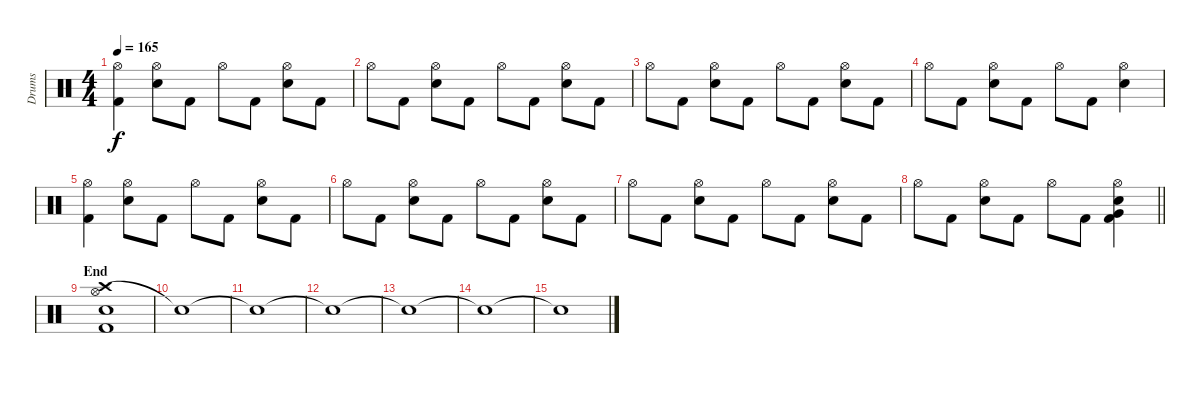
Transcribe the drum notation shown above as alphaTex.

\track ("Drums" "Drums") {instrument percussion}
\staff {score}
\articulation defaults
\ts (4 4)
\tempo 165
\clef neutral
\ks c
("Hi-Hat (open)" "Kick (hit) 2").4{dy f} ("Hi-Hat (open)" "Electric Snare (hit)").8 "Kick (hit) 2".8 "Hi-Hat (open)".8 "Kick (hit) 2".8 ("Hi-Hat (open)" "Electric Snare (hit)").8 "Kick (hit) 2".8 |
"Hi-Hat (open)".8 "Kick (hit) 2".8 ("Hi-Hat (open)" "Electric Snare (hit)").8 "Kick (hit) 2".8 "Hi-Hat (open)".8 "Kick (hit) 2".8 ("Hi-Hat (open)" "Electric Snare (hit)").8 "Kick (hit) 2".8 |
"Hi-Hat (open)".8 "Kick (hit) 2".8 ("Hi-Hat (open)" "Electric Snare (hit)").8 "Kick (hit) 2".8 "Hi-Hat (open)".8 "Kick (hit) 2".8 ("Hi-Hat (open)" "Electric Snare (hit)").8 "Kick (hit) 2".8 |
"Hi-Hat (open)".8 "Kick (hit) 2".8 ("Hi-Hat (open)" "Electric Snare (hit)").8 "Kick (hit) 2".8 "Hi-Hat (open)".8 "Kick (hit) 2".8 ("Hi-Hat (open)" "Electric Snare (hit)").4 |
("Hi-Hat (open)" "Kick (hit) 2").4 ("Hi-Hat (open)" "Electric Snare (hit)").8 "Kick (hit) 2".8 "Hi-Hat (open)".8 "Kick (hit) 2".8 ("Hi-Hat (open)" "Electric Snare (hit)").8 "Kick (hit) 2".8 |
"Hi-Hat (open)".8 "Kick (hit) 2".8 ("Hi-Hat (open)" "Electric Snare (hit)").8 "Kick (hit) 2".8 "Hi-Hat (open)".8 "Kick (hit) 2".8 ("Hi-Hat (open)" "Electric Snare (hit)").8 "Kick (hit) 2".8 |
"Hi-Hat (open)".8 "Kick (hit) 2".8 ("Hi-Hat (open)" "Electric Snare (hit)").8 "Kick (hit) 2".8 "Hi-Hat (open)".8 "Kick (hit) 2".8 ("Hi-Hat (open)" "Electric Snare (hit)").8 "Kick (hit) 2".8 |
\barLineRight lightlight "Hi-Hat (open)".8 "Kick (hit) 2".8
("Hi-Hat (open)" "Electric Snare (hit)").8 "Kick (hit) 2".8 "Hi-Hat (open)".8 "Kick (hit) 2".8 ("Hi-Hat (open)" "Very Low Tom (hit)" "Electric Snare (hit)" "Kick (hit) 2").4 |
\section ("" "End")
("Crash high (hit)" "Hi-Hat (open)" "Electric Snare (hit)" "Kick (hit) 2").1 |
"Snare (hit)"{t}.1 |
"Snare (hit)"{t}.1 |
"Snare (hit)"{t}.1 |
"Snare (hit)"{t}.1 |
"Snare (hit)"{t}.1 |
"Snare (hit)"{t}.1
